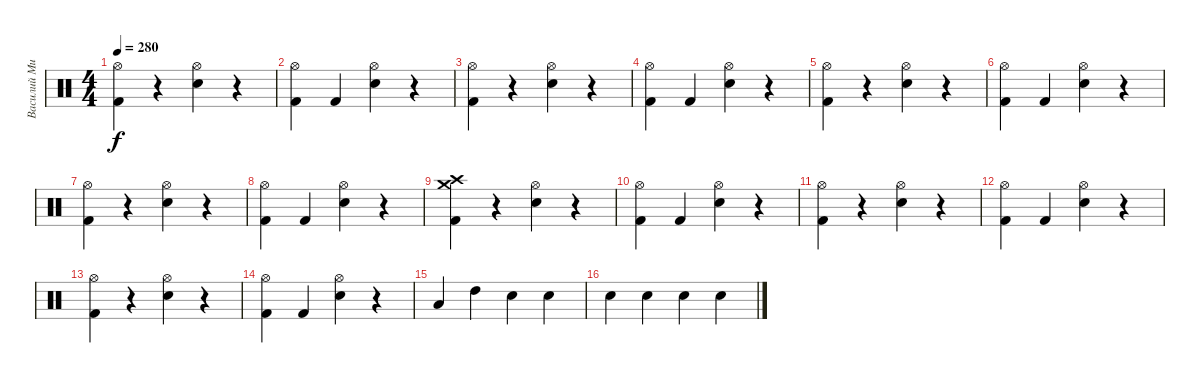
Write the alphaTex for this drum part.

\track ("Василий Михалыч-ударные" "Василий Ми") {instrument percussion}
\staff {score}
\articulation defaults
\ts (4 4)
\tempo 280
\clef neutral
\ks c
("Kick (hit) 2" "Hi-Hat (open)").4{dy f} r.4 ("Snare (hit) 2" "Hi-Hat (open)").4 r.4 |
("Kick (hit) 2" "Hi-Hat (open)").4 "Kick (hit) 2".4 ("Snare (hit) 2" "Hi-Hat (open)").4 r.4 |
("Kick (hit) 2" "Hi-Hat (open)").4 r.4 ("Snare (hit) 2" "Hi-Hat (open)").4 r.4 |
("Kick (hit) 2" "Hi-Hat (open)").4 "Kick (hit) 2".4 ("Snare (hit) 2" "Hi-Hat (open)").4 r.4 |
("Kick (hit) 2" "Hi-Hat (open)").4 r.4 ("Snare (hit) 2" "Hi-Hat (open)").4 r.4 |
("Kick (hit) 2" "Hi-Hat (open)").4 "Kick (hit) 2".4 ("Snare (hit) 2" "Hi-Hat (open)").4 r.4 |
("Kick (hit) 2" "Hi-Hat (open)").4 r.4 ("Snare (hit) 2" "Hi-Hat (open)").4 r.4 |
("Kick (hit) 2" "Hi-Hat (open)").4 "Kick (hit) 2".4 ("Snare (hit) 2" "Hi-Hat (open)").4 r.4 |
("Kick (hit) 2" "Crash high (hit)" "Crash medium (hit)").4 r.4 ("Snare (hit) 2" "Hi-Hat (open)").4 r.4 |
("Kick (hit) 2" "Hi-Hat (open)").4 "Kick (hit) 2".4 ("Snare (hit) 2" "Hi-Hat (open)").4 r.4 |
("Kick (hit) 2" "Hi-Hat (open)").4 r.4 ("Snare (hit) 2" "Hi-Hat (open)").4 r.4 |
("Kick (hit) 2" "Hi-Hat (open)").4 "Kick (hit) 2".4 ("Snare (hit) 2" "Hi-Hat (open)").4 r.4 |
("Kick (hit) 2" "Hi-Hat (open)").4 r.4 ("Snare (hit) 2" "Hi-Hat (open)").4 r.4 |
("Kick (hit) 2" "Hi-Hat (open)").4 "Kick (hit) 2".4 ("Snare (hit) 2" "Hi-Hat (open)").4 r.4 |
"Low Tom (hit)".4 "High Tom (hit)".4 "Snare (hit) 2".4 "Snare (hit) 2".4 |
"Snare (hit) 2".4 "Snare (hit) 2".4 "Snare (hit) 2".4 "Snare (hit) 2".4
